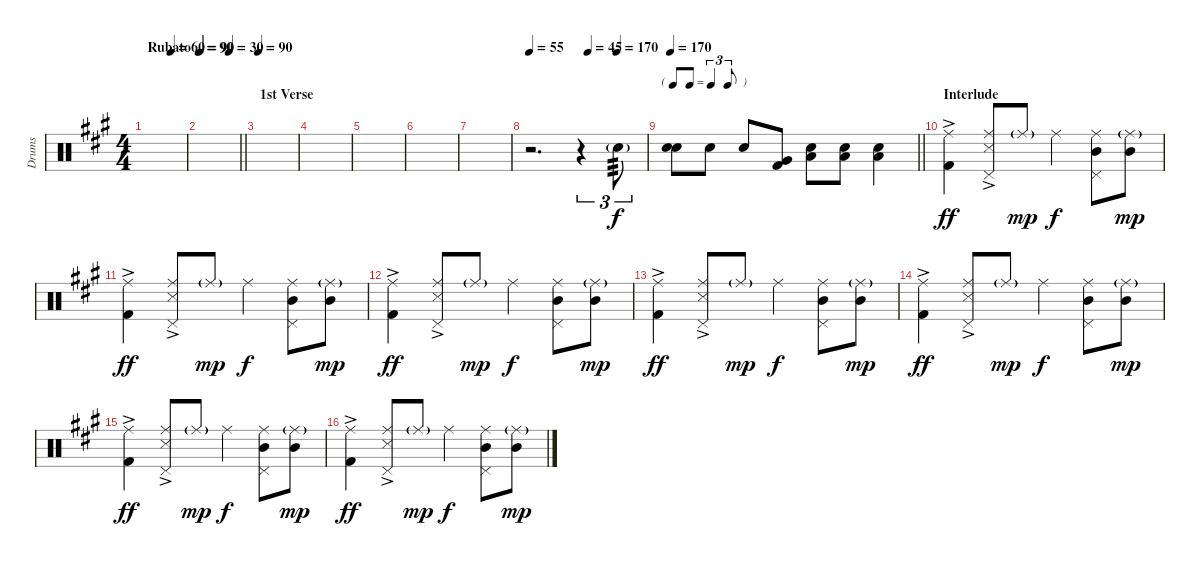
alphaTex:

\track ("Drums" "Drums") {instrument percussion}
\staff {score}
\articulation defaults
\ts (4 4)
\tempo (90 "Rubato")
\tempo (60 0.625)
\tempo (90 "Rubato")
\clef neutral
\ks a
|
\tempo 90
\tempo (30 0.75)
\barLineRight lightlight
|
\section ("" "1st Verse")
\tempo 90
|
|
|
|
|
\tempo 55
\tempo (45 0.5)
\tempo (170 0.75)
r.2{d} r.4{tu (3 2)} "Snare (hit) 2"{g}.8{tu (3 2) tp 3} |
\tf triplet8th
\tempo 170
\barLineRight lightlight
("Snare (hit) 2" "Electric Snare (hit)").8{dy f} "Snare (hit) 2".8 "Snare (hit) 2".8 ("Kick (hit) 2" "Very Low Tom (hit)").8 ("Electric Snare (hit)" "Low Tom (hit)").8 ("Electric Snare (hit)" "Low Tom (hit)").8 ("Electric Snare (hit)" "Low Tom (hit)").4 |
\section ("" "Interlude")
("Kick (hit) 2"{ac} "Ride (middle)").4{dy ff} ("Snare (side stick) 3"{ac} "Pedal Hi-Hat (hit)" "Ride (middle)").8 "Ride (middle)"{g}.8{dy mp} "Ride (middle)".4{dy f} ("Mid Tom (hit)" "Pedal Hi-Hat (hit)" "Ride (middle)").8 ("Mid Tom (hit)" "Ride (middle)"{g}).8{dy mp} |
("Kick (hit) 2"{ac} "Ride (middle)").4{dy ff} ("Snare (side stick) 3"{ac} "Pedal Hi-Hat (hit)" "Ride (middle)").8 "Ride (middle)"{g}.8{dy mp} "Ride (middle)".4{dy f} ("Mid Tom (hit)" "Pedal Hi-Hat (hit)" "Ride (middle)").8 ("Mid Tom (hit)" "Ride (middle)"{g}).8{dy mp} |
("Kick (hit) 2"{ac} "Ride (middle)").4{dy ff} ("Snare (side stick) 3"{ac} "Pedal Hi-Hat (hit)" "Ride (middle)").8 "Ride (middle)"{g}.8{dy mp} "Ride (middle)".4{dy f} ("Mid Tom (hit)" "Pedal Hi-Hat (hit)" "Ride (middle)").8 ("Mid Tom (hit)" "Ride (middle)"{g}).8{dy mp} |
("Kick (hit) 2"{ac} "Ride (middle)").4{dy ff} ("Snare (side stick) 3"{ac} "Pedal Hi-Hat (hit)" "Ride (middle)").8 "Ride (middle)"{g}.8{dy mp} "Ride (middle)".4{dy f} ("Mid Tom (hit)" "Pedal Hi-Hat (hit)" "Ride (middle)").8 ("Mid Tom (hit)" "Ride (middle)"{g}).8{dy mp} |
("Kick (hit) 2"{ac} "Ride (middle)").4{dy ff} ("Snare (side stick) 3"{ac} "Pedal Hi-Hat (hit)" "Ride (middle)").8 "Ride (middle)"{g}.8{dy mp} "Ride (middle)".4{dy f} ("Mid Tom (hit)" "Pedal Hi-Hat (hit)" "Ride (middle)").8 ("Mid Tom (hit)" "Ride (middle)"{g}).8{dy mp} |
("Kick (hit) 2"{ac} "Ride (middle)").4{dy ff} ("Snare (side stick) 3"{ac} "Pedal Hi-Hat (hit)" "Ride (middle)").8 "Ride (middle)"{g}.8{dy mp} "Ride (middle)".4{dy f} ("Mid Tom (hit)" "Pedal Hi-Hat (hit)" "Ride (middle)").8 ("Mid Tom (hit)" "Ride (middle)"{g}).8{dy mp} |
("Kick (hit) 2"{ac} "Ride (middle)").4{dy ff} ("Snare (side stick) 3"{ac} "Pedal Hi-Hat (hit)" "Ride (middle)").8 "Ride (middle)"{g}.8{dy mp} "Ride (middle)".4{dy f} ("Mid Tom (hit)" "Pedal Hi-Hat (hit)" "Ride (middle)").8 ("Mid Tom (hit)" "Ride (middle)"{g}).8{dy mp}
